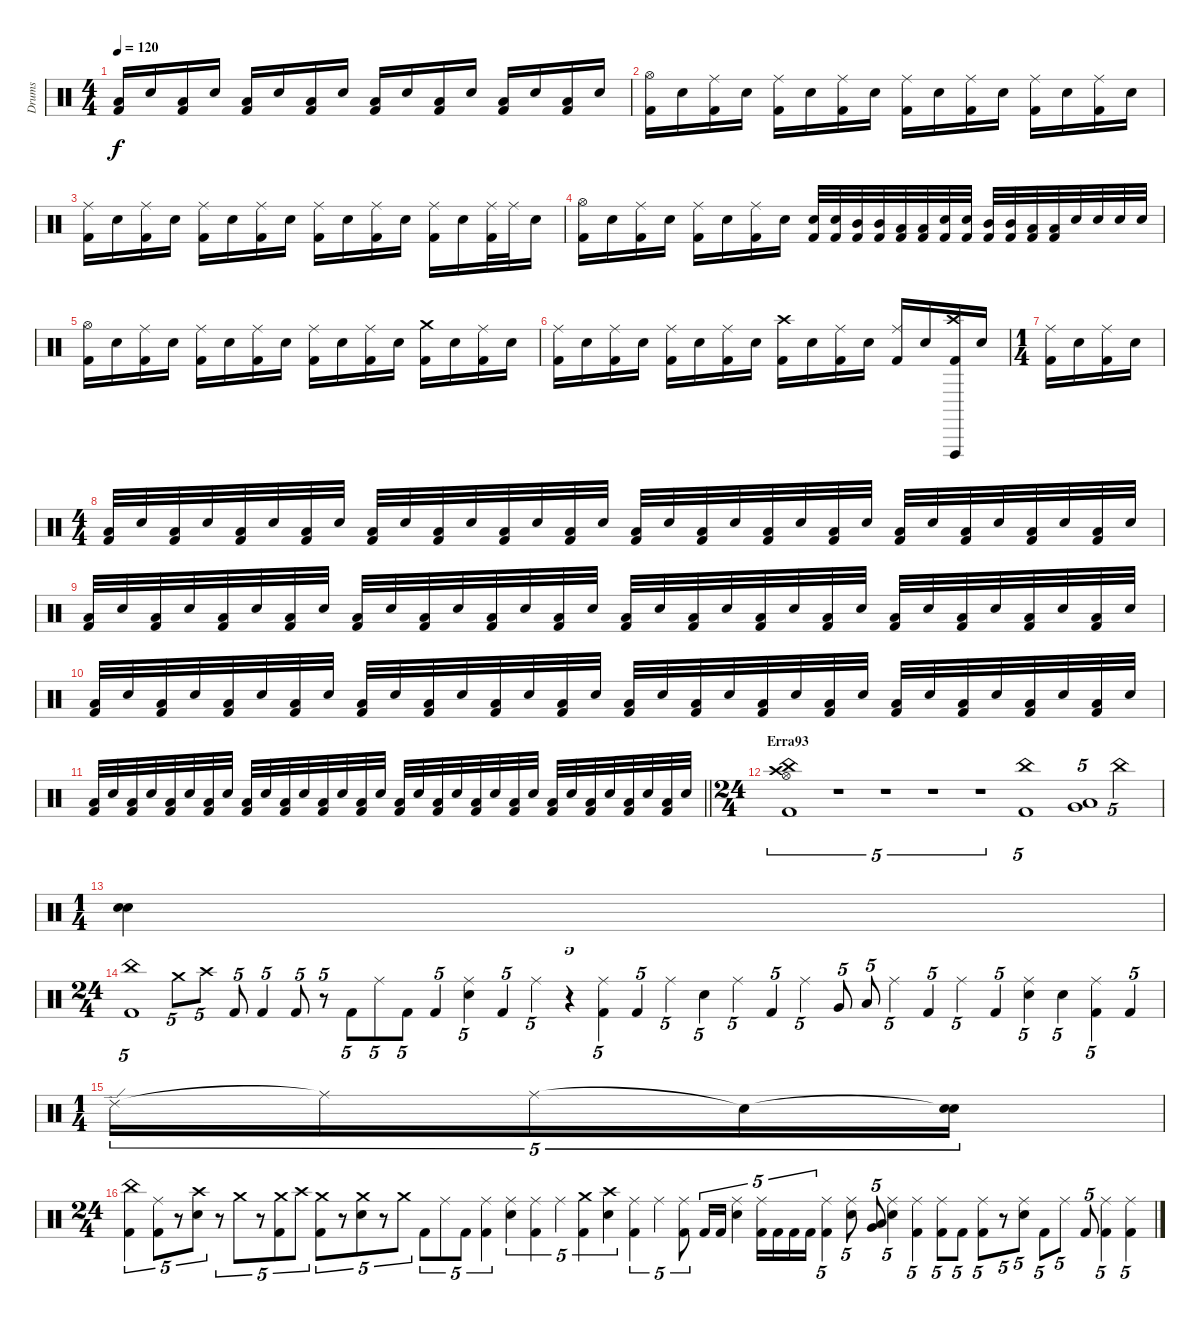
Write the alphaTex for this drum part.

\track ("Drums" "Drums") {instrument percussion}
\staff {score}
\articulation defaults
\ts (4 4)
\tempo 120
\clef neutral
\ks c
("Low Tom (hit)" "Kick (hit) 2").16{dy f} "Electric Snare (hit)".16 ("Low Tom (hit)" "Kick (hit) 2").16 "Electric Snare (hit)".16 ("Low Tom (hit)" "Kick (hit) 2").16 "Electric Snare (hit)".16 ("Low Tom (hit)" "Kick (hit) 2").16 "Electric Snare (hit)".16 ("Low Tom (hit)" "Kick (hit) 2").16 "Electric Snare (hit)".16 ("Low Tom (hit)" "Kick (hit) 2").16 "Electric Snare (hit)".16 ("Low Tom (hit)" "Kick (hit) 2").16 "Electric Snare (hit)".16 ("Low Tom (hit)" "Kick (hit) 2").16 "Electric Snare (hit)".16 |
("Hi-Hat (open)" "Kick (hit) 2").16 "Electric Snare (hit)".16 ("Ride (middle)" "Kick (hit) 2").16 "Electric Snare (hit)".16 ("Ride (middle)" "Kick (hit) 2").16 "Electric Snare (hit)".16 ("Ride (middle)" "Kick (hit) 2").16 "Electric Snare (hit)".16 ("Ride (middle)" "Kick (hit) 2").16 "Electric Snare (hit)".16 ("Ride (middle)" "Kick (hit) 2").16 "Electric Snare (hit)".16 ("Ride (middle)" "Kick (hit) 2").16 "Electric Snare (hit)".16 ("Ride (middle)" "Kick (hit) 2").16 "Electric Snare (hit)".16 |
("Ride (middle)" "Kick (hit) 2").16 "Electric Snare (hit)".16 ("Ride (middle)" "Kick (hit) 2").16 "Electric Snare (hit)".16 ("Ride (middle)" "Kick (hit) 2").16 "Electric Snare (hit)".16 ("Ride (middle)" "Kick (hit) 2").16 "Electric Snare (hit)".16 ("Ride (middle)" "Kick (hit) 2").16 "Electric Snare (hit)".16 ("Ride (middle)" "Kick (hit) 2").16 "Electric Snare (hit)".16 ("Ride (middle)" "Kick (hit) 2").16 "Electric Snare (hit)".16 ("Ride (middle)" "Kick (hit) 2").32 "Ride (middle)".32 "Electric Snare (hit)".16 |
("Hi-Hat (open)" "Kick (hit) 2").16 "Electric Snare (hit)".16 ("Ride (middle)" "Kick (hit) 2").16 "Electric Snare (hit)".16 ("Ride (middle)" "Kick (hit) 2").16 "Electric Snare (hit)".16 ("Ride (middle)" "Kick (hit) 2").16 "Electric Snare (hit)".16 ("Electric Snare (hit)" "Kick (hit) 2").32 ("Electric Snare (hit)" "Kick (hit) 2").32 ("Mid Tom (hit)" "Kick (hit) 2").32 ("Mid Tom (hit)" "Kick (hit) 2").32 ("Low Tom (hit)" "Kick (hit) 2").32 ("Low Tom (hit)" "Kick (hit) 2").32 ("Electric Snare (hit)" "Kick (hit) 2").32 ("Electric Snare (hit)" "Kick (hit) 2").32 ("Mid Tom (hit)" "Kick (hit) 2").32 ("Mid Tom (hit)" "Kick (hit) 2").32 ("Low Tom (hit)" "Kick (hit) 2").32 ("Low Tom (hit)" "Kick (hit) 2").32 "Electric Snare (hit)".32 "Electric Snare (hit)".32 "Electric Snare (hit)".32 "Electric Snare (hit)".32 |
("Hi-Hat (open)" "Kick (hit) 2").16 "Electric Snare (hit)".16 ("Ride (middle)" "Kick (hit) 2").16 "Electric Snare (hit)".16 ("Ride (middle)" "Kick (hit) 2").16 "Electric Snare (hit)".16 ("Ride (middle)" "Kick (hit) 2").16 "Electric Snare (hit)".16 ("Ride (middle)" "Kick (hit) 2").16 "Electric Snare (hit)".16 ("Ride (middle)" "Kick (hit) 2").16 "Electric Snare (hit)".16 ("Crash medium (hit)" "Kick (hit) 2").16 "Electric Snare (hit)".16 ("Ride (middle)" "Kick (hit) 2").16 "Electric Snare (hit)".16 |
("Ride (middle)" "Kick (hit) 2").16 "Electric Snare (hit)".16 ("Ride (middle)" "Kick (hit) 2").16 "Electric Snare (hit)".16 ("Ride (middle)" "Kick (hit) 2").16 "Electric Snare (hit)".16 ("Ride (middle)" "Kick (hit) 2").16 "Electric Snare (hit)".16 ("Crash high (hit)" "Kick (hit) 2").16 "Electric Snare (hit)".16 ("Ride (middle)" "Kick (hit) 2").16 "Electric Snare (hit)".16 ("Ride (middle)" "Kick (hit) 2").16 "Electric Snare (hit)".16 ("Vibraslap (hit)" "Crash high (hit)" "Kick (hit) 2").16 "Electric Snare (hit)".16 |
\ts (1 4)
("Ride (middle)" "Kick (hit) 2").16 "Electric Snare (hit)".16 ("Ride (middle)" "Kick (hit) 2").16 "Electric Snare (hit)".16 |
\ts (4 4)
("Low Tom (hit)" "Kick (hit) 2").32 "Electric Snare (hit)".32 ("Low Tom (hit)" "Kick (hit) 2").32 "Electric Snare (hit)".32 ("Low Tom (hit)" "Kick (hit) 2").32 "Electric Snare (hit)".32 ("Low Tom (hit)" "Kick (hit) 2").32 "Electric Snare (hit)".32 ("Low Tom (hit)" "Kick (hit) 2").32 "Electric Snare (hit)".32 ("Low Tom (hit)" "Kick (hit) 2").32 "Electric Snare (hit)".32 ("Low Tom (hit)" "Kick (hit) 2").32 "Electric Snare (hit)".32 ("Low Tom (hit)" "Kick (hit) 2").32 "Electric Snare (hit)".32 ("Low Tom (hit)" "Kick (hit) 2").32 "Electric Snare (hit)".32 ("Low Tom (hit)" "Kick (hit) 2").32 "Electric Snare (hit)".32 ("Low Tom (hit)" "Kick (hit) 2").32 "Electric Snare (hit)".32 ("Low Tom (hit)" "Kick (hit) 2").32 "Electric Snare (hit)".32 ("Low Tom (hit)" "Kick (hit) 2").32 "Electric Snare (hit)".32 ("Low Tom (hit)" "Kick (hit) 2").32 "Electric Snare (hit)".32 ("Low Tom (hit)" "Kick (hit) 2").32 "Electric Snare (hit)".32 ("Low Tom (hit)" "Kick (hit) 2").32 "Electric Snare (hit)".32 |
("Low Tom (hit)" "Kick (hit) 2").32 "Electric Snare (hit)".32 ("Low Tom (hit)" "Kick (hit) 2").32 "Electric Snare (hit)".32 ("Low Tom (hit)" "Kick (hit) 2").32 "Electric Snare (hit)".32 ("Low Tom (hit)" "Kick (hit) 2").32 "Electric Snare (hit)".32 ("Low Tom (hit)" "Kick (hit) 2").32 "Electric Snare (hit)".32 ("Low Tom (hit)" "Kick (hit) 2").32 "Electric Snare (hit)".32 ("Low Tom (hit)" "Kick (hit) 2").32 "Electric Snare (hit)".32 ("Low Tom (hit)" "Kick (hit) 2").32 "Electric Snare (hit)".32 ("Low Tom (hit)" "Kick (hit) 2").32 "Electric Snare (hit)".32 ("Low Tom (hit)" "Kick (hit) 2").32 "Electric Snare (hit)".32 ("Low Tom (hit)" "Kick (hit) 2").32 "Electric Snare (hit)".32 ("Low Tom (hit)" "Kick (hit) 2").32 "Electric Snare (hit)".32 ("Low Tom (hit)" "Kick (hit) 2").32 "Electric Snare (hit)".32 ("Low Tom (hit)" "Kick (hit) 2").32 "Electric Snare (hit)".32 ("Low Tom (hit)" "Kick (hit) 2").32 "Electric Snare (hit)".32 ("Low Tom (hit)" "Kick (hit) 2").32 "Electric Snare (hit)".32 |
("Low Tom (hit)" "Kick (hit) 2").32 "Electric Snare (hit)".32 ("Low Tom (hit)" "Kick (hit) 2").32 "Electric Snare (hit)".32 ("Low Tom (hit)" "Kick (hit) 2").32 "Electric Snare (hit)".32 ("Low Tom (hit)" "Kick (hit) 2").32 "Electric Snare (hit)".32 ("Low Tom (hit)" "Kick (hit) 2").32 "Electric Snare (hit)".32 ("Low Tom (hit)" "Kick (hit) 2").32 "Electric Snare (hit)".32 ("Low Tom (hit)" "Kick (hit) 2").32 "Electric Snare (hit)".32 ("Low Tom (hit)" "Kick (hit) 2").32 "Electric Snare (hit)".32 ("Low Tom (hit)" "Kick (hit) 2").32 "Electric Snare (hit)".32 ("Low Tom (hit)" "Kick (hit) 2").32 "Electric Snare (hit)".32 ("Low Tom (hit)" "Kick (hit) 2").32 "Electric Snare (hit)".32 ("Low Tom (hit)" "Kick (hit) 2").32 "Electric Snare (hit)".32 ("Low Tom (hit)" "Kick (hit) 2").32 "Electric Snare (hit)".32 ("Low Tom (hit)" "Kick (hit) 2").32 "Electric Snare (hit)".32 ("Low Tom (hit)" "Kick (hit) 2").32 "Electric Snare (hit)".32 ("Low Tom (hit)" "Kick (hit) 2").32 "Electric Snare (hit)".32 |
\barLineRight lightlight
("Low Tom (hit)" "Kick (hit) 2").32 "Electric Snare (hit)".32 ("Low Tom (hit)" "Kick (hit) 2").32 "Electric Snare (hit)".32 ("Low Tom (hit)" "Kick (hit) 2").32 "Electric Snare (hit)".32 ("Low Tom (hit)" "Kick (hit) 2").32 "Electric Snare (hit)".32 ("Low Tom (hit)" "Kick (hit) 2").32 "Electric Snare (hit)".32 ("Low Tom (hit)" "Kick (hit) 2").32 "Electric Snare (hit)".32 ("Low Tom (hit)" "Kick (hit) 2").32 "Electric Snare (hit)".32 ("Low Tom (hit)" "Kick (hit) 2").32 "Electric Snare (hit)".32 ("Low Tom (hit)" "Kick (hit) 2").32 "Electric Snare (hit)".32 ("Low Tom (hit)" "Kick (hit) 2").32 "Electric Snare (hit)".32 ("Low Tom (hit)" "Kick (hit) 2").32 "Electric Snare (hit)".32 ("Low Tom (hit)" "Kick (hit) 2").32 "Electric Snare (hit)".32 ("Low Tom (hit)" "Kick (hit) 2").32 "Electric Snare (hit)".32 ("Low Tom (hit)" "Kick (hit) 2").32 "Electric Snare (hit)".32 ("Low Tom (hit)" "Kick (hit) 2").32 "Electric Snare (hit)".32 ("Low Tom (hit)" "Kick (hit) 2").32 "Electric Snare (hit)".32 |
\ts (24 4)
\section ("" "Erra93")
("Crash high (hit)" "China (hit)" "Hi-Hat (open)" "Kick (hit) 2").1{tu (5 4)} r.1{tu (5 4)} r.1{tu (5 4)} r.1{tu (5 4)} r.1{tu (5 4)} ("China (hit)" "Kick (hit) 2").1{tu (5 4)} ("Very Low Tom (hit)" "Low Tom (hit)").1{tu (5 4)} "China (hit)".2{tu (5 4)} |
\ts (1 4)
("Electric Snare (hit)" "Electric Snare (hit)").4{bu 60} |
\ts (24 4)
("China (hit)" "Kick (hit) 2").1{tu (5 4)} "Crash medium (hit)".8{tu (5 4)} "Crash high (hit)".8{tu (5 4)} "Kick (hit) 2".8{tu (5 4)} "Kick (hit) 2".4{tu (5 4)} "Kick (hit) 2".8{tu (5 4)} r.8{tu (5 4)} "Kick (hit) 2".8{tu (5 4)} "Ride (middle)".8{tu (5 4)} "Kick (hit) 2".8{tu (5 4)} "Kick (hit) 2".4{tu (5 4)} ("Ride (middle)" "Electric Snare (hit)").4{tu (5 4)} "Kick (hit) 2".4{tu (5 4)} "Ride (middle)".4{tu (5 4)} r.4{tu (5 4)} ("Ride (middle)" "Kick (hit) 2").4{tu (5 4)} "Kick (hit) 2".4{tu (5 4)} "Ride (middle)".4{tu (5 4)} "Electric Snare (hit)".4{tu (5 4)} "Ride (middle)".4{tu (5 4)} "Kick (hit) 2".4{tu (5 4)} "Ride (middle)".4{tu (5 4)} "Very Low Tom (hit)".8{tu (5 4)} "Low Tom (hit)".8{tu (5 4)} "Ride (middle)".4{tu (5 4)} "Kick (hit) 2".4{tu (5 4)} "Ride (middle)".4{tu (5 4)} "Kick (hit) 2".4{tu (5 4)} ("Ride (middle)" "Electric Snare (hit)").4{tu (5 4)} "Electric Snare (hit)".4{tu (5 4)} ("Ride (middle)" "Kick (hit) 2").4{tu (5 4)} "Kick (hit) 2".4{tu (5 4)} |
\ts (1 4)
"Ride (edge) 2".16{tu (5 4)} "Ride (middle)"{t}.16{tu (5 4)} "Ride (middle)".16{tu (5 4)} "Snare (hit)"{t}.16{tu (5 4)} ("Snare (hit)"{t} "Electric Snare (hit)").16{tu (5 4)} |
\ts (24 4)
("China (hit)" "Kick (hit) 2").4{tu (5 4)} ("Ride (middle)" "Kick (hit) 2").8{tu (5 4)} r.8{tu (5 4)} ("Crash high (hit)" "Electric Snare (hit)").8{tu (5 4)} r.8{tu (5 4)} "Crash medium (hit)".8{tu (5 4)} r.8{tu (5 4)} ("Crash medium (hit)" "Kick (hit) 2").8{tu (5 4)} "Crash high (hit)".8{tu (5 4)} ("Crash medium (hit)" "Kick (hit) 2").8{tu (5 4)} r.8{tu (5 4)} ("Crash medium (hit)" "Electric Snare (hit)").8{tu (5 4)} r.8{tu (5 4)} "Crash medium (hit)".8{tu (5 4)} "Kick (hit) 2".8{tu (5 4)} "Ride (middle)".8{tu (5 4)} "Kick (hit) 2".8{tu (5 4)} ("Ride (middle)" "Kick (hit) 2").4{tu (5 4)} ("Ride (middle)" "Electric Snare (hit)").4{tu (5 4)} ("Ride (middle)" "Kick (hit) 2").4{tu (5 4)} "Ride (middle)".4{tu (5 4)} ("Crash medium (hit)" "Kick (hit) 2").4{tu (5 4)} ("Crash high (hit)" "Electric Snare (hit)").4{tu (5 4)} ("Ride (middle)" "Kick (hit) 2").4{tu (5 4)} "Ride (middle)".4{tu (5 4)} ("Ride (middle)" "Kick (hit) 2").8{tu (5 4)} "Kick (hit) 2".16{tu (5 4)} "Kick (hit) 2".16{tu (5 4)} ("Ride (middle)" "Electric Snare (hit)").4{tu (5 4)} ("Ride (middle)" "Kick (hit) 2").16{tu (5 4)} "Kick (hit) 2".16{tu (5 4)} "Kick (hit) 2".16{tu (5 4)} "Kick (hit) 2".16{tu (5 4)} ("Ride (middle)" "Kick (hit) 2").4{tu (5 4)} ("Ride (middle)" "Electric Snare (hit)").8{tu (5 4)} ("Low Tom (hit)" "Very Low Tom (hit)").8{tu (5 4)} ("Ride (middle)" "Electric Snare (hit)").4{tu (5 4)} ("Ride (middle)" "Kick (hit) 2").4{tu (5 4)} ("Ride (middle)" "Kick (hit) 2").8{tu (5 4)} "Kick (hit) 2".8{tu (5 4)} ("Ride (middle)" "Kick (hit) 2").8{tu (5 4)} r.8{tu (5 4)} ("Ride (middle)" "Electric Snare (hit)").8{tu (5 4)} "Kick (hit) 2".8{tu (5 4)} "Ride (middle)".8{tu (5 4)} "Kick (hit) 2".8{tu (5 4)} ("Ride (middle)" "Kick (hit) 2").4{tu (5 4)} ("Ride (middle)" "Kick (hit) 2").4{tu (5 4)}
